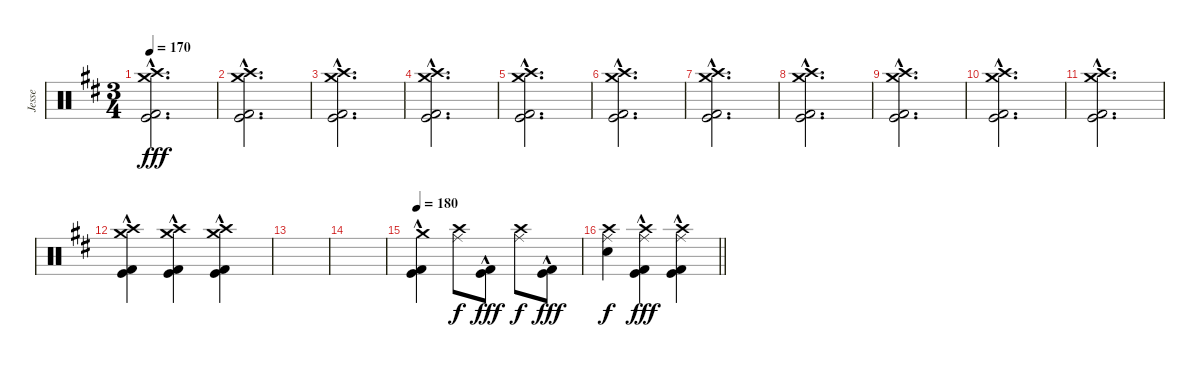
\track ("Jesse" "Jesse") {instrument percussion}
\staff {score}
\articulation defaults
\ts (3 4)
\tempo 170
\clef neutral
\ks d
("Crash medium (hit)" "Crash high (hit)" "Kick (hit)"{hac} "Kick (hit) 2"{hac}).2{d dy fff} |
("Crash medium (hit)" "Crash high (hit)" "Kick (hit)"{hac} "Kick (hit) 2"{hac}).2{d} |
("Crash medium (hit)" "Crash high (hit)" "Kick (hit)"{hac} "Kick (hit) 2"{hac}).2{d} |
("Crash medium (hit)" "Crash high (hit)" "Kick (hit)"{hac} "Kick (hit) 2"{hac}).2{d} |
("Crash medium (hit)" "Crash high (hit)" "Kick (hit)"{hac} "Kick (hit) 2"{hac}).2{d} |
("Crash medium (hit)" "Crash high (hit)" "Kick (hit)"{hac} "Kick (hit) 2"{hac}).2{d} |
("Crash medium (hit)" "Crash high (hit)" "Kick (hit)"{hac} "Kick (hit) 2"{hac}).2{d} |
("Crash medium (hit)" "Crash high (hit)" "Kick (hit)"{hac} "Kick (hit) 2"{hac}).2{d} |
("Crash medium (hit)" "Crash high (hit)" "Kick (hit)"{hac} "Kick (hit) 2"{hac}).2{d} |
("Crash medium (hit)" "Crash high (hit)" "Kick (hit)"{hac} "Kick (hit) 2"{hac}).2{d} |
("Crash medium (hit)" "Crash high (hit)" "Kick (hit)"{hac} "Kick (hit) 2"{hac}).2{d} |
("Crash medium (hit)" "Crash high (hit)" "Kick (hit)"{hac} "Kick (hit) 2"{hac}).4 ("Crash medium (hit)" "Crash high (hit)" "Kick (hit)"{hac} "Kick (hit) 2"{hac}).4 ("Crash medium (hit)" "Crash high (hit)" "Kick (hit)"{hac} "Kick (hit) 2"{hac}).4 |
|
|
\tempo 180
("Crash medium (hit)" "Kick (hit)"{hac} "Kick (hit) 2"{hac}).4 ("Crash high (hit)" "Ride (middle)").8{dy f} ("Kick (hit)"{hac} "Kick (hit) 2"{hac}).8{dy fff} ("Crash high (hit)" "Ride (middle)").8{dy f} ("Kick (hit)"{hac} "Kick (hit) 2"{hac}).8{dy fff} |
\barLineRight lightlight
("Crash high (hit)" "Ride (middle)" "Electric Snare (hit)").4{dy f} ("Crash high (hit)" "Ride (middle)" "Kick (hit)"{hac} "Kick (hit) 2"{hac}).4{dy fff} ("Crash high (hit)" "Ride (middle)" "Kick (hit)"{hac} "Kick (hit) 2"{hac}).4
